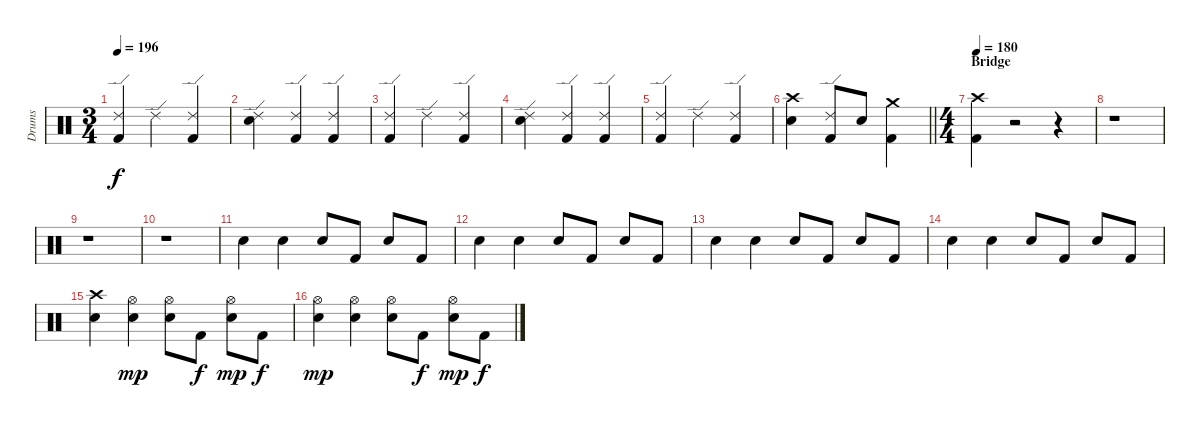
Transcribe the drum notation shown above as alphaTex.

\track ("Drums" "Drums") {instrument percussion}
\staff {score}
\articulation defaults
\ts (3 4)
\tempo 196
\clef neutral
\ks c
("Ride (edge) 2" "Kick (hit) 2").4{dy f} "Ride (edge) 2".4 ("Ride (edge) 2" "Kick (hit) 2").4 |
("Ride (edge) 2" "Electric Snare (hit)").4 ("Ride (edge) 2" "Kick (hit) 2").4 ("Ride (edge) 2" "Kick (hit) 2").4 |
("Ride (edge) 2" "Kick (hit) 2").4 "Ride (edge) 2".4 ("Ride (edge) 2" "Kick (hit) 2").4 |
("Ride (edge) 2" "Electric Snare (hit)").4 ("Ride (edge) 2" "Kick (hit) 2").4 ("Ride (edge) 2" "Kick (hit) 2").4 |
("Ride (edge) 2" "Kick (hit) 2").4 "Ride (edge) 2".4 ("Ride (edge) 2" "Kick (hit) 2").4 |
\barLineRight lightlight
("Crash high (hit)" "Electric Snare (hit)").4 ("Ride (edge) 2" "Kick (hit) 2").8 "Electric Snare (hit)".8 ("Crash medium (hit)" "Kick (hit) 2").4 |
\ts (4 4)
\section ("" "Bridge")
\tempo 180
("Crash high (hit)" "Kick (hit) 2").4 r.2 r.4 |
r.1 |
r.1 |
r.1 |
"Electric Snare (hit)".4 "Electric Snare (hit)".4 "Electric Snare (hit)".8 "Kick (hit) 2".8 "Electric Snare (hit)".8 "Kick (hit) 2".8 |
"Electric Snare (hit)".4 "Electric Snare (hit)".4 "Electric Snare (hit)".8 "Kick (hit) 2".8 "Electric Snare (hit)".8 "Kick (hit) 2".8 |
"Electric Snare (hit)".4 "Electric Snare (hit)".4 "Electric Snare (hit)".8 "Kick (hit) 2".8 "Electric Snare (hit)".8 "Kick (hit) 2".8 |
"Electric Snare (hit)".4 "Electric Snare (hit)".4 "Electric Snare (hit)".8 "Kick (hit) 2".8 "Electric Snare (hit)".8 "Kick (hit) 2".8 |
("Crash high (hit)" "Electric Snare (hit)").4 ("Hi-Hat (open)" "Electric Snare (hit)").4{dy mp} ("Hi-Hat (open)" "Electric Snare (hit)").8 "Kick (hit) 2".8{dy f} ("Hi-Hat (open)" "Electric Snare (hit)").8{dy mp} "Kick (hit) 2".8{dy f} |
("Hi-Hat (open)" "Electric Snare (hit)").4{dy mp} ("Hi-Hat (open)" "Electric Snare (hit)").4 ("Hi-Hat (open)" "Electric Snare (hit)").8 "Kick (hit) 2".8{dy f} ("Hi-Hat (open)" "Electric Snare (hit)").8{dy mp} "Kick (hit) 2".8{dy f}
